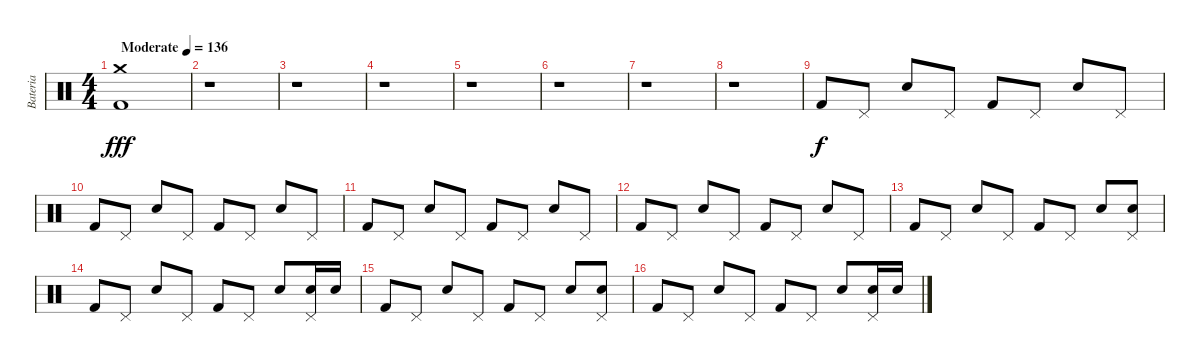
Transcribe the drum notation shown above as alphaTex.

\track ("Bateria" "Bateria") {instrument percussion}
\staff {score}
\articulation defaults
\ts (4 4)
\tempo (136 "Moderate")
\clef neutral
\ks c
("Crash medium (hit)" "Kick (hit) 2").1{dy fff} |
r.1 |
r.1 |
r.1 |
r.1 |
r.1 |
r.1 |
r.1 |
"Kick (hit) 2".8{dy f} "Pedal Hi-Hat (hit)".8 "Electric Snare (hit)".8 "Pedal Hi-Hat (hit)".8 "Kick (hit) 2".8 "Pedal Hi-Hat (hit)".8 "Electric Snare (hit)".8 "Pedal Hi-Hat (hit)".8 |
"Kick (hit) 2".8 "Pedal Hi-Hat (hit)".8 "Electric Snare (hit)".8 "Pedal Hi-Hat (hit)".8 "Kick (hit) 2".8 "Pedal Hi-Hat (hit)".8 "Electric Snare (hit)".8 "Pedal Hi-Hat (hit)".8 |
"Kick (hit) 2".8 "Pedal Hi-Hat (hit)".8 "Electric Snare (hit)".8 "Pedal Hi-Hat (hit)".8 "Kick (hit) 2".8 "Pedal Hi-Hat (hit)".8 "Electric Snare (hit)".8 "Pedal Hi-Hat (hit)".8 |
"Kick (hit) 2".8 "Pedal Hi-Hat (hit)".8 "Electric Snare (hit)".8 "Pedal Hi-Hat (hit)".8 "Kick (hit) 2".8 "Pedal Hi-Hat (hit)".8 "Electric Snare (hit)".8 "Pedal Hi-Hat (hit)".8 |
"Kick (hit) 2".8 "Pedal Hi-Hat (hit)".8 "Electric Snare (hit)".8 "Pedal Hi-Hat (hit)".8 "Kick (hit) 2".8 "Pedal Hi-Hat (hit)".8 "Electric Snare (hit)".8 ("Pedal Hi-Hat (hit)" "Electric Snare (hit)").8 |
"Kick (hit) 2".8 "Pedal Hi-Hat (hit)".8 "Electric Snare (hit)".8 "Pedal Hi-Hat (hit)".8 "Kick (hit) 2".8 "Pedal Hi-Hat (hit)".8 "Electric Snare (hit)".8 ("Pedal Hi-Hat (hit)" "Electric Snare (hit)").16 "Electric Snare (hit)".16 |
"Kick (hit) 2".8 "Pedal Hi-Hat (hit)".8 "Electric Snare (hit)".8 "Pedal Hi-Hat (hit)".8 "Kick (hit) 2".8 "Pedal Hi-Hat (hit)".8 "Electric Snare (hit)".8 ("Pedal Hi-Hat (hit)" "Electric Snare (hit)").8 |
"Kick (hit) 2".8 "Pedal Hi-Hat (hit)".8 "Electric Snare (hit)".8 "Pedal Hi-Hat (hit)".8 "Kick (hit) 2".8 "Pedal Hi-Hat (hit)".8 "Electric Snare (hit)".8 ("Pedal Hi-Hat (hit)" "Electric Snare (hit)").16 "Electric Snare (hit)".16
